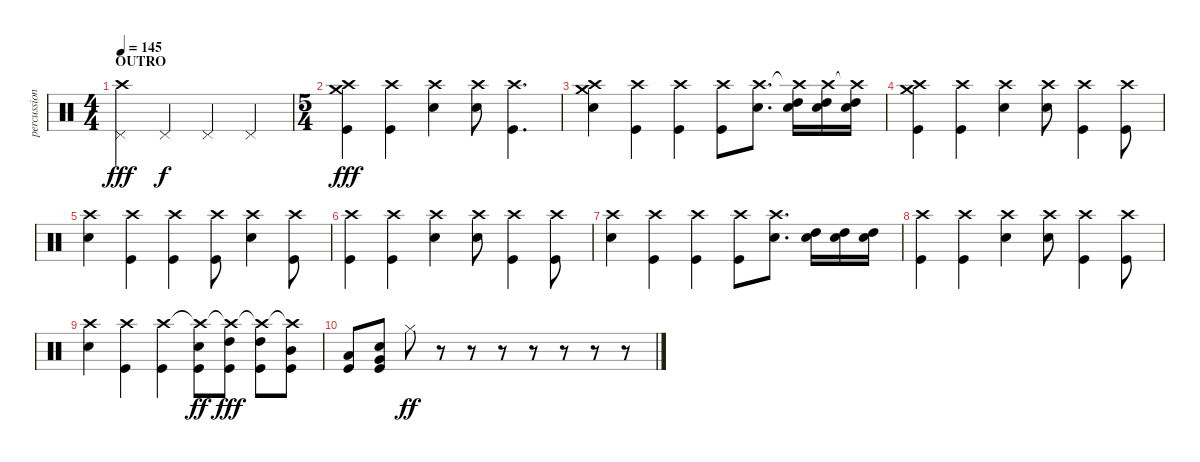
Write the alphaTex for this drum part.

\track ("percussion" "percussion") {instrument percussion}
\staff {score}
\articulation defaults
\ts (4 4)
\section ("" "OUTRO")
\tempo 145
\clef neutral
\ks c
("Crash high (hit)" "Pedal Hi-Hat (hit)").4{dy fff} "Pedal Hi-Hat (hit)".4{dy f} "Pedal Hi-Hat (hit)".4 "Pedal Hi-Hat (hit)".4 |
\ts (5 4)
("Crash high (hit)" "Crash medium (hit)" "Kick (hit)").4{dy fff} ("Crash high (hit)" "Kick (hit)").4 ("Crash high (hit)" "Electric Snare (hit)").4 ("Crash high (hit)" "Electric Snare (hit)").8 ("Crash high (hit)" "Kick (hit)").4{d} |
("Crash high (hit)" "Crash medium (hit)" "Electric Snare (hit)").4 ("Crash high (hit)" "Kick (hit)").4 ("Crash high (hit)" "Kick (hit)").4 ("Crash high (hit)" "Kick (hit)").8 ("Crash high (hit)" "Electric Snare (hit)").8{d} ("Crash high (hit)"{t} "Electric Snare (hit)" "High Tom (hit)").16 ("Crash high (hit)" "Electric Snare (hit)" "High Tom (hit)").16 ("Crash high (hit)"{t} "Electric Snare (hit)" "High Tom (hit)").16 |
("Crash high (hit)" "Crash medium (hit)" "Kick (hit)").4 ("Crash high (hit)" "Kick (hit)").4 ("Crash high (hit)" "Electric Snare (hit)").4 ("Crash high (hit)" "Electric Snare (hit)").8 ("Crash high (hit)" "Kick (hit)").4 ("Crash high (hit)" "Kick (hit)").8 |
("Crash high (hit)" "Electric Snare (hit)").4 ("Crash high (hit)" "Kick (hit)").4 ("Crash high (hit)" "Kick (hit)").4 ("Crash high (hit)" "Kick (hit)").8 ("Crash high (hit)" "Electric Snare (hit)").4 ("Crash high (hit)" "Kick (hit)").8 |
("Crash high (hit)" "Kick (hit)").4 ("Crash high (hit)" "Kick (hit)").4 ("Crash high (hit)" "Electric Snare (hit)").4 ("Crash high (hit)" "Electric Snare (hit)").8 ("Crash high (hit)" "Kick (hit)").4 ("Crash high (hit)" "Kick (hit)").8 |
("Crash high (hit)" "Electric Snare (hit)").4 ("Crash high (hit)" "Kick (hit)").4 ("Crash high (hit)" "Kick (hit)").4 ("Crash high (hit)" "Kick (hit)").8 ("Crash high (hit)" "Electric Snare (hit)").8{d} ("Electric Snare (hit)" "High Tom (hit)").16 ("Electric Snare (hit)" "High Tom (hit)").16 ("Electric Snare (hit)" "High Tom (hit)").16 |
("Crash high (hit)" "Kick (hit)").4 ("Crash high (hit)" "Kick (hit)").4 ("Crash high (hit)" "Electric Snare (hit)").4 ("Crash high (hit)" "Electric Snare (hit)").8 ("Crash high (hit)" "Kick (hit)").4 ("Crash high (hit)" "Kick (hit)").8 |
("Crash high (hit)" "Electric Snare (hit)").4 ("Crash high (hit)" "Kick (hit)").4 ("Crash high (hit)" "Kick (hit)").4 ("Crash high (hit)"{t} "Kick (hit)" "Electric Snare (hit)").8{dy ff} ("Crash high (hit)"{t} "High Tom (hit)" "Kick (hit)").8{dy fff} ("Crash high (hit)"{t} "High Tom (hit)" "Kick (hit)").8 ("Crash high (hit)"{t} "Mid Tom (hit)" "Kick (hit)").8 |
("Low Tom (hit)" "Kick (hit)").8 ("Electric Snare (hit)" "Very Low Tom (hit)" "Kick (hit)").8 "Hi-Hat (closed)".8{dy ff} r.8 r.8 r.8 r.8 r.8 r.8 r.8
